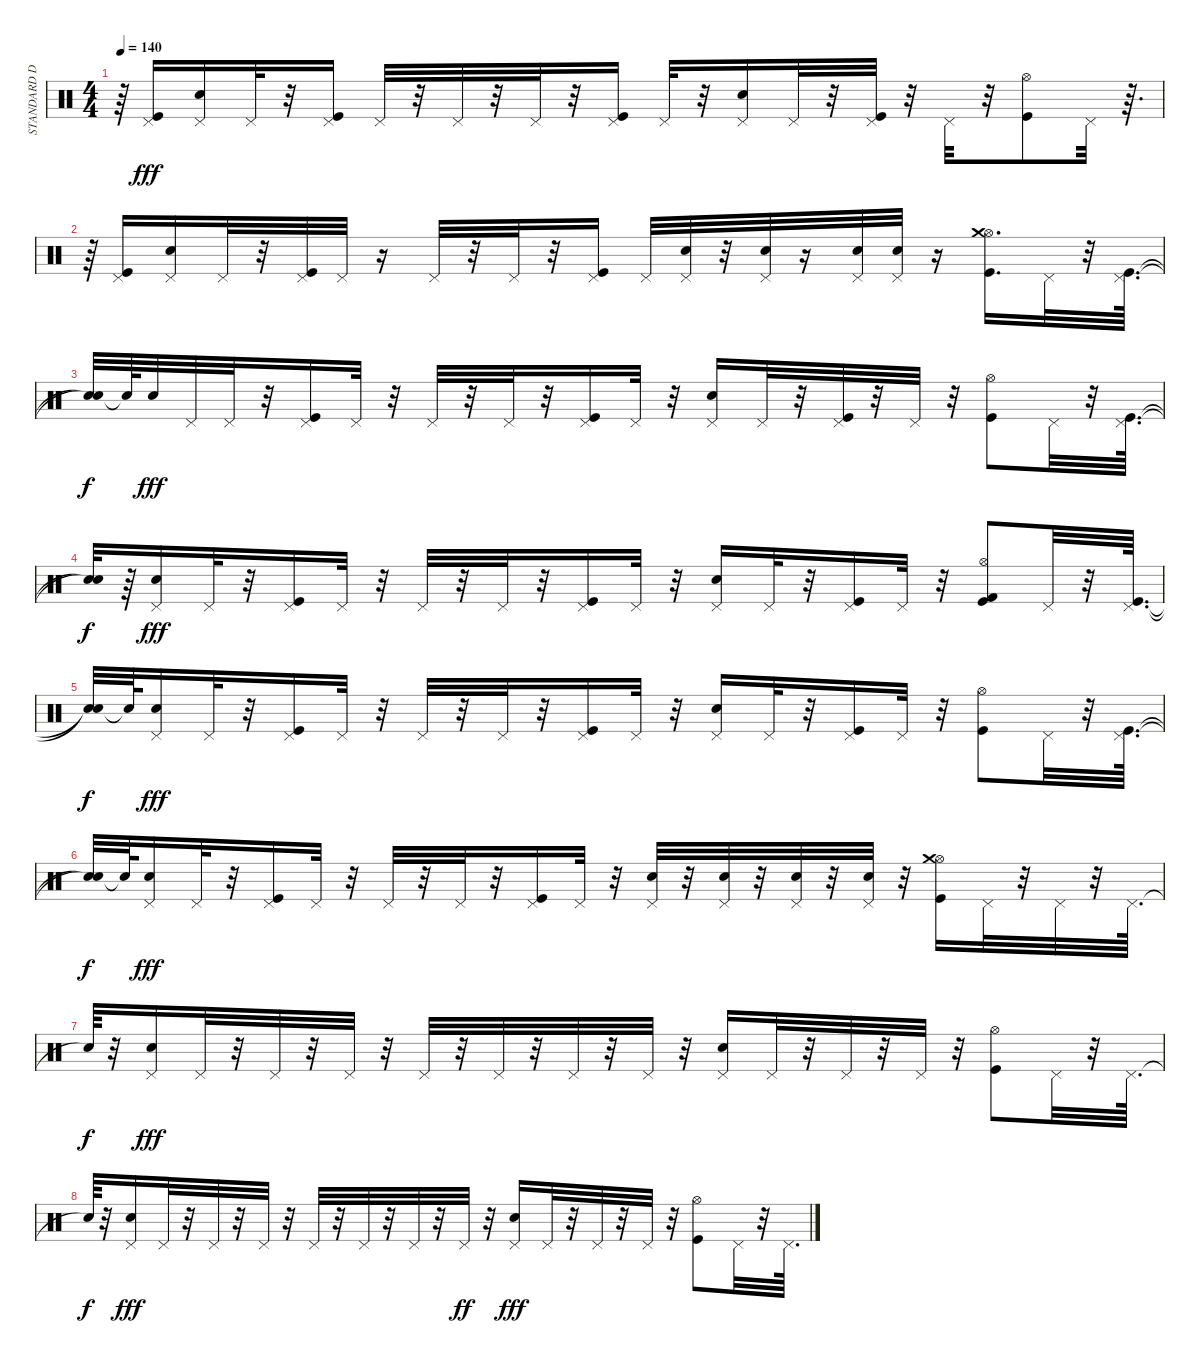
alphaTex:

\track ("STANDARD DRUMS" "STANDARD D") {instrument percussion}
\staff {score}
\articulation defaults
\ts (4 4)
\tempo 140
\clef neutral
\ks c
r.64{dy fff} ("Kick (hit)" "Pedal Hi-Hat (hit)").16 ("Snare (hit) 2" "Pedal Hi-Hat (hit)").16 "Pedal Hi-Hat (hit)".32 r.32 ("Kick (hit)" "Pedal Hi-Hat (hit)").16 "Pedal Hi-Hat (hit)".32 r.32 "Pedal Hi-Hat (hit)".32 r.32 "Pedal Hi-Hat (hit)".32 r.32 ("Kick (hit)" "Pedal Hi-Hat (hit)").16 "Pedal Hi-Hat (hit)".32 r.32 ("Snare (hit) 2" "Pedal Hi-Hat (hit)").16 "Pedal Hi-Hat (hit)".32 r.32 ("Kick (hit)" "Pedal Hi-Hat (hit)").32 r.32 "Pedal Hi-Hat (hit)".32 r.32 ("Kick (hit)" "Hi-Hat (open)").8 "Pedal Hi-Hat (hit)".32 r.64{d} |
r.64 ("Kick (hit)" "Pedal Hi-Hat (hit)").16 ("Snare (hit) 2" "Pedal Hi-Hat (hit)").16 "Pedal Hi-Hat (hit)".32 r.32 ("Kick (hit)" "Pedal Hi-Hat (hit)").32 "Pedal Hi-Hat (hit)".32 r.16 "Pedal Hi-Hat (hit)".32 r.32 "Pedal Hi-Hat (hit)".32 r.32 ("Kick (hit)" "Pedal Hi-Hat (hit)").16 "Pedal Hi-Hat (hit)".32 ("Snare (hit) 2" "Pedal Hi-Hat (hit)").32 r.32 ("Snare (hit) 2" "Pedal Hi-Hat (hit)").32 r.16 ("Snare (hit) 2" "Pedal Hi-Hat (hit)").32 ("Snare (hit) 2" "Pedal Hi-Hat (hit)").32 r.16 ("Kick (hit)" "Hi-Hat (open)" "Crash medium (hit)").16{d} "Pedal Hi-Hat (hit)".32 r.32 ("Kick (hit)" "Pedal Hi-Hat (hit)").64{d} |
("Snare (hit)"{t} "Snare (hit)"{t}).32{dy f} "Snare (hit)"{t}.64 "Snare (hit) 2".32{dy fff} "Pedal Hi-Hat (hit)".32 "Pedal Hi-Hat (hit)".32 r.32 ("Kick (hit)" "Pedal Hi-Hat (hit)").16 "Pedal Hi-Hat (hit)".32 r.32 "Pedal Hi-Hat (hit)".32 r.32 "Pedal Hi-Hat (hit)".32 r.32 ("Kick (hit)" "Pedal Hi-Hat (hit)").16 "Pedal Hi-Hat (hit)".32 r.32 ("Snare (hit) 2" "Pedal Hi-Hat (hit)").16 "Pedal Hi-Hat (hit)".32 r.32 ("Kick (hit)" "Pedal Hi-Hat (hit)").32 r.32 "Pedal Hi-Hat (hit)".32 r.32 ("Kick (hit)" "Hi-Hat (open)").8 "Pedal Hi-Hat (hit)".32 r.32 ("Kick (hit)" "Pedal Hi-Hat (hit)").64{d} |
("Snare (hit)"{t} "Snare (hit)"{t}).32{dy f} r.64 ("Snare (hit) 2" "Pedal Hi-Hat (hit)").16{dy fff} "Pedal Hi-Hat (hit)".32 r.32 ("Kick (hit)" "Pedal Hi-Hat (hit)").16 "Pedal Hi-Hat (hit)".32 r.32 "Pedal Hi-Hat (hit)".32 r.32 "Pedal Hi-Hat (hit)".32 r.32 ("Kick (hit)" "Pedal Hi-Hat (hit)").16 "Pedal Hi-Hat (hit)".32 r.32 ("Snare (hit) 2" "Pedal Hi-Hat (hit)").16 "Pedal Hi-Hat (hit)".32 r.32 ("Kick (hit)" "Pedal Hi-Hat (hit)").16 "Pedal Hi-Hat (hit)".32 r.32 ("Kick (hit)" "Kick (hit) 2" "Hi-Hat (open)").8 "Pedal Hi-Hat (hit)".32 r.32 ("Kick (hit)" "Pedal Hi-Hat (hit)").64{d} |
("Snare (hit)"{t} "Snare (hit)"{t}).32{dy f} "Snare (hit)"{t}.64 ("Snare (hit) 2" "Pedal Hi-Hat (hit)").16{dy fff} "Pedal Hi-Hat (hit)".32 r.32 ("Kick (hit)" "Pedal Hi-Hat (hit)").16 "Pedal Hi-Hat (hit)".32 r.32 "Pedal Hi-Hat (hit)".32 r.32 "Pedal Hi-Hat (hit)".32 r.32 ("Kick (hit)" "Pedal Hi-Hat (hit)").16 "Pedal Hi-Hat (hit)".32 r.32 ("Snare (hit) 2" "Pedal Hi-Hat (hit)").16 "Pedal Hi-Hat (hit)".32 r.32 ("Kick (hit)" "Pedal Hi-Hat (hit)").16 "Pedal Hi-Hat (hit)".32 r.32 ("Kick (hit)" "Hi-Hat (open)").8 "Pedal Hi-Hat (hit)".32 r.32 ("Kick (hit)" "Pedal Hi-Hat (hit)").64{d} |
("Snare (hit)"{t} "Snare (hit)"{t}).32{dy f} "Snare (hit)"{t}.64 ("Snare (hit) 2" "Pedal Hi-Hat (hit)").16{dy fff} "Pedal Hi-Hat (hit)".32 r.32 ("Kick (hit)" "Pedal Hi-Hat (hit)").16 "Pedal Hi-Hat (hit)".32 r.32 "Pedal Hi-Hat (hit)".32 r.32 "Pedal Hi-Hat (hit)".32 r.32 ("Kick (hit)" "Pedal Hi-Hat (hit)").16 "Pedal Hi-Hat (hit)".32 r.32 ("Snare (hit) 2" "Pedal Hi-Hat (hit)").32 r.32 ("Snare (hit) 2" "Pedal Hi-Hat (hit)").32 r.32 ("Snare (hit) 2" "Pedal Hi-Hat (hit)").32 r.32 ("Snare (hit) 2" "Pedal Hi-Hat (hit)").32 r.32 ("Kick (hit)" "Hi-Hat (open)" "Crash medium (hit)").16 "Pedal Hi-Hat (hit)".32 r.32 "Pedal Hi-Hat (hit)".32 r.32 "Pedal Hi-Hat (hit)".64{d} |
"Snare (hit)"{t}.64{dy f} r.32 ("Snare (hit) 2" "Pedal Hi-Hat (hit)").16{dy fff} "Pedal Hi-Hat (hit)".32 r.32 "Pedal Hi-Hat (hit)".32 r.32 "Pedal Hi-Hat (hit)".32 r.32 "Pedal Hi-Hat (hit)".32 r.32 "Pedal Hi-Hat (hit)".32 r.32 "Pedal Hi-Hat (hit)".32 r.32 "Pedal Hi-Hat (hit)".32 r.32 ("Snare (hit) 2" "Pedal Hi-Hat (hit)").16 "Pedal Hi-Hat (hit)".32 r.32 "Pedal Hi-Hat (hit)".32 r.32 "Pedal Hi-Hat (hit)".32 r.32 ("Kick (hit)" "Hi-Hat (open)").8 "Pedal Hi-Hat (hit)".32 r.32 "Pedal Hi-Hat (hit)".64{d} |
"Snare (hit)"{t}.64{dy f} r.32 ("Snare (hit) 2" "Pedal Hi-Hat (hit)").16{dy fff} "Pedal Hi-Hat (hit)".32 r.32 "Pedal Hi-Hat (hit)".32 r.32 "Pedal Hi-Hat (hit)".32 r.32 "Pedal Hi-Hat (hit)".32 r.32 "Pedal Hi-Hat (hit)".32 r.32 "Pedal Hi-Hat (hit)".32 r.32 "Pedal Hi-Hat (hit)".32{dy ff} r.32 ("Snare (hit) 2" "Pedal Hi-Hat (hit)").16{dy fff} "Pedal Hi-Hat (hit)".32 r.32 "Pedal Hi-Hat (hit)".32 r.32 "Pedal Hi-Hat (hit)".32 r.32 ("Kick (hit)" "Hi-Hat (open)").8 "Pedal Hi-Hat (hit)".32 r.32 "Pedal Hi-Hat (hit)".64{d}
